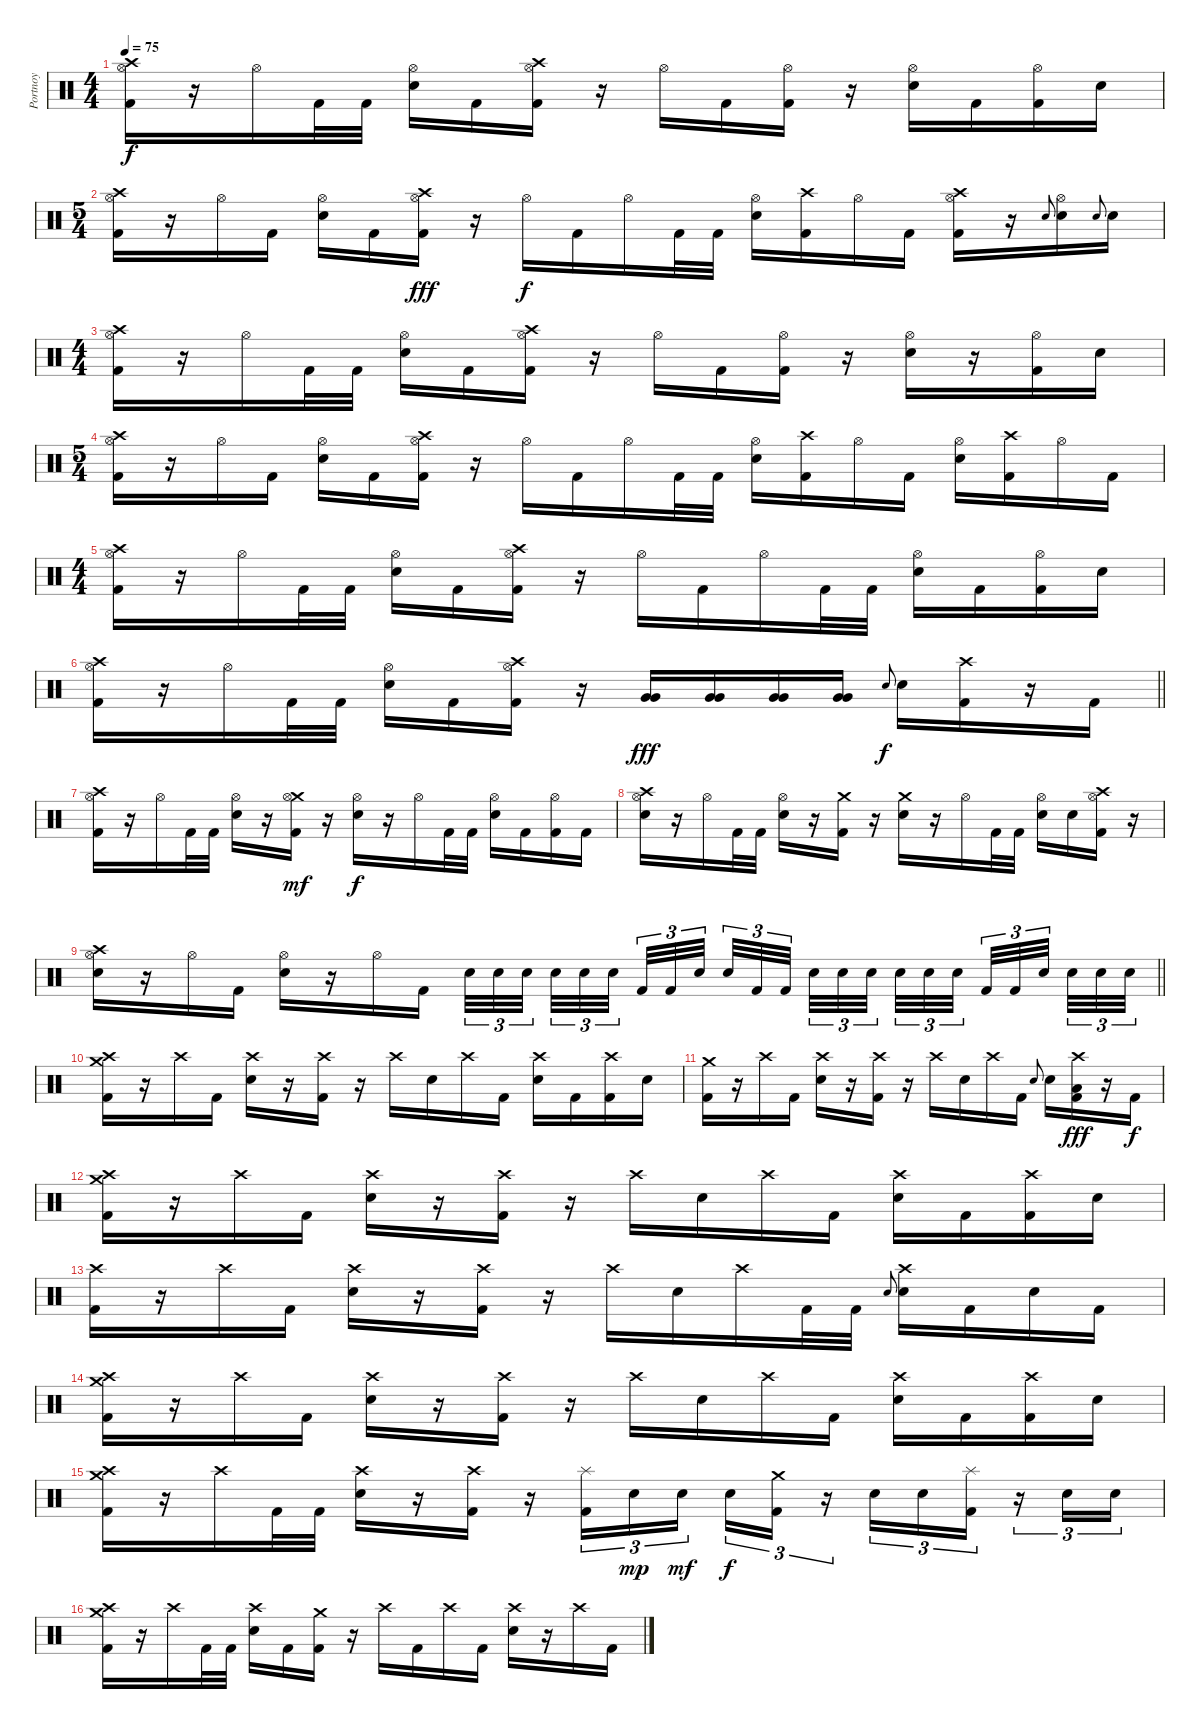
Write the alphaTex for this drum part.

\track ("Portnoy" "Portnoy") {instrument percussion}
\staff {score}
\articulation defaults
\ts (4 4)
\tempo 75
\clef neutral
\ks c
("Crash high (hit)" "Hi-Hat (open)" "Kick (hit) 2").16{dy f} r.16 "Hi-Hat (open)".16 "Kick (hit) 2".32 "Kick (hit) 2".32 ("Hi-Hat (open)" "Electric Snare (hit)").16 "Kick (hit) 2".16 ("Crash high (hit)" "Hi-Hat (open)" "Kick (hit) 2").16 r.16 "Hi-Hat (open)".16 "Kick (hit) 2".16 ("Hi-Hat (open)" "Kick (hit) 2").16 r.16 ("Hi-Hat (open)" "Electric Snare (hit)").16 "Kick (hit) 2".16 ("Hi-Hat (open)" "Kick (hit) 2").16 "Electric Snare (hit)".16 |
\ts (5 4)
("Crash high (hit)" "Hi-Hat (open)" "Kick (hit) 2").16 r.16 "Hi-Hat (open)".16 "Kick (hit) 2".16 ("Hi-Hat (open)" "Electric Snare (hit)").16 "Kick (hit) 2".16 ("Crash high (hit)" "Hi-Hat (open)" "Kick (hit) 2").16{dy fff} r.16 "Hi-Hat (open)".16{dy f} "Kick (hit) 2".16 "Hi-Hat (open)".16 "Kick (hit) 2".32 "Kick (hit) 2".32 ("Hi-Hat (open)" "Electric Snare (hit)").16 ("Crash high (hit)" "Kick (hit) 2").16 "Hi-Hat (open)".16 "Kick (hit) 2".16 ("Crash high (hit)" "Hi-Hat (open)" "Kick (hit) 2").16 r.16 "Electric Snare (hit)".8{gr onbeat} ("Hi-Hat (open)" "Electric Snare (hit)").16 "Electric Snare (hit)".8{gr onbeat} "Electric Snare (hit)".16 |
\ts (4 4)
("Crash high (hit)" "Hi-Hat (open)" "Kick (hit) 2").16 r.16 "Hi-Hat (open)".16 "Kick (hit) 2".32 "Kick (hit) 2".32 ("Hi-Hat (open)" "Electric Snare (hit)").16 "Kick (hit) 2".16 ("Crash high (hit)" "Hi-Hat (open)" "Kick (hit) 2").16 r.16 "Hi-Hat (open)".16 "Kick (hit) 2".16 ("Hi-Hat (open)" "Kick (hit) 2").16 r.16 ("Hi-Hat (open)" "Electric Snare (hit)").16 r.16 ("Hi-Hat (open)" "Kick (hit) 2").16 "Electric Snare (hit)".16 |
\ts (5 4)
("Crash high (hit)" "Hi-Hat (open)" "Kick (hit) 2").16 r.16 "Hi-Hat (open)".16 "Kick (hit) 2".16 ("Hi-Hat (open)" "Electric Snare (hit)").16 "Kick (hit) 2".16 ("Crash high (hit)" "Hi-Hat (open)" "Kick (hit) 2").16 r.16 "Hi-Hat (open)".16 "Kick (hit) 2".16 "Hi-Hat (open)".16 "Kick (hit) 2".32 "Kick (hit) 2".32 ("Hi-Hat (open)" "Electric Snare (hit)").16 ("Crash high (hit)" "Kick (hit) 2").16 "Hi-Hat (open)".16 "Kick (hit) 2".16 ("Hi-Hat (open)" "Electric Snare (hit)").16 ("Crash high (hit)" "Kick (hit) 2").16 "Hi-Hat (open)".16 "Kick (hit) 2".16 |
\ts (4 4)
("Crash high (hit)" "Hi-Hat (open)" "Kick (hit) 2").16 r.16 "Hi-Hat (open)".16 "Kick (hit) 2".32 "Kick (hit) 2".32 ("Hi-Hat (open)" "Electric Snare (hit)").16 "Kick (hit) 2".16 ("Crash high (hit)" "Hi-Hat (open)" "Kick (hit) 2").16 r.16 "Hi-Hat (open)".16 "Kick (hit) 2".16 "Hi-Hat (open)".16 "Kick (hit) 2".32 "Kick (hit) 2".32 ("Hi-Hat (open)" "Electric Snare (hit)").16 "Kick (hit) 2".16 ("Hi-Hat (open)" "Kick (hit) 2").16 "Electric Snare (hit)".16 |
\barLineRight lightlight
("Crash high (hit)" "Hi-Hat (open)" "Kick (hit) 2").16 r.16 "Hi-Hat (open)".16 "Kick (hit) 2".32 "Kick (hit) 2".32 ("Hi-Hat (open)" "Electric Snare (hit)").16 "Kick (hit) 2".16 ("Crash high (hit)" "Hi-Hat (open)" "Kick (hit) 2").16 r.16 ("Very Low Tom (hit)" "Very Low Tom (hit)").16{dy fff} ("Very Low Tom (hit)" "Very Low Tom (hit)").16 ("Very Low Tom (hit)" "Very Low Tom (hit)").16 ("Very Low Tom (hit)" "Very Low Tom (hit)").16 "Electric Snare (hit)".8{gr onbeat dy f} "Electric Snare (hit)".16 ("Crash high (hit)" "Kick (hit) 2").16 r.16 "Kick (hit) 2".16 |
("Crash high (hit)" "Hi-Hat (open)" "Kick (hit) 2").16 r.16 "Hi-Hat (open)".16 "Kick (hit) 2".32 "Kick (hit) 2".32 ("Hi-Hat (open)" "Electric Snare (hit)").16 r.16 ("Crash medium (hit)" "Hi-Hat (open)" "Kick (hit) 2").16{dy mf} r.16 ("Hi-Hat (open)" "Electric Snare (hit)").16{dy f} r.16 "Hi-Hat (open)".16 "Kick (hit) 2".32 "Kick (hit) 2".32 ("Hi-Hat (open)" "Electric Snare (hit)").16 "Kick (hit) 2".16 ("Hi-Hat (open)" "Kick (hit) 2").16 "Kick (hit) 2".16 |
("Crash high (hit)" "Hi-Hat (open)" "Electric Snare (hit)").16 r.16 "Hi-Hat (open)".16 "Kick (hit) 2".32 "Kick (hit) 2".32 ("Hi-Hat (open)" "Electric Snare (hit)").16 r.16 ("Crash medium (hit)" "Kick (hit) 2").16 r.16 ("Crash medium (hit)" "Electric Snare (hit)").16 r.16 "Hi-Hat (open)".16 "Kick (hit) 2".32 "Kick (hit) 2".32 ("Hi-Hat (open)" "Electric Snare (hit)").16 "Electric Snare (hit)".16 ("Crash high (hit)" "Hi-Hat (open)" "Kick (hit) 2").16 r.16 |
\barLineRight lightlight
("Crash high (hit)" "Hi-Hat (open)" "Electric Snare (hit)").16 r.16 "Hi-Hat (open)".16 "Kick (hit) 2".16 ("Hi-Hat (open)" "Electric Snare (hit)").16 r.16 "Hi-Hat (open)".16 "Kick (hit) 2".16 "Electric Snare (hit)".32{tu (3 2)} "Electric Snare (hit)".32{tu (3 2)} "Electric Snare (hit)".32{tu (3 2) beam splitsecondary} "Electric Snare (hit)".32{tu (3 2)} "Electric Snare (hit)".32{tu (3 2)} "Electric Snare (hit)".32{tu (3 2) beam splitsecondary} "Kick (hit) 2".32{tu (3 2)} "Kick (hit) 2".32{tu (3 2)} "Electric Snare (hit)".32{tu (3 2) beam splitsecondary} "Electric Snare (hit)".32{tu (3 2)} "Kick (hit) 2".32{tu (3 2)} "Kick (hit) 2".32{tu (3 2)} "Electric Snare (hit)".32{tu (3 2)} "Electric Snare (hit)".32{tu (3 2)} "Electric Snare (hit)".32{tu (3 2) beam splitsecondary} "Electric Snare (hit)".32{tu (3 2)} "Electric Snare (hit)".32{tu (3 2)} "Electric Snare (hit)".32{tu (3 2) beam splitsecondary} "Kick (hit) 2".32{tu (3 2)} "Kick (hit) 2".32{tu (3 2)} "Electric Snare (hit)".32{tu (3 2) beam splitsecondary} "Electric Snare (hit)".32{tu (3 2)} "Electric Snare (hit)".32{tu (3 2)} "Electric Snare (hit)".32{tu (3 2)} |
("Crash medium (hit)" "Crash high (hit)" "Kick (hit) 2").16 r.16 "Crash high (hit)".16 "Kick (hit) 2".16 ("Crash high (hit)" "Electric Snare (hit)").16 r.16 ("Crash high (hit)" "Kick (hit) 2").16 r.16 "Crash high (hit)".16 "Electric Snare (hit)".16 "Crash high (hit)".16 "Kick (hit) 2".16 ("Crash high (hit)" "Electric Snare (hit)").16 "Kick (hit) 2".16 ("Crash high (hit)" "Kick (hit) 2").16 "Electric Snare (hit)".16 |
("Crash medium (hit)" "Kick (hit) 2").16 r.16 "Crash high (hit)".16 "Kick (hit) 2".16 ("Crash high (hit)" "Electric Snare (hit)").16 r.16 ("Crash high (hit)" "Kick (hit) 2").16 r.16 "Crash high (hit)".16 "Electric Snare (hit)".16 "Crash high (hit)".16 "Kick (hit) 2".16 "Electric Snare (hit)".8{gr onbeat} "Electric Snare (hit)".16 ("Crash high (hit)" "Low Floor Tom (hit)" "Kick (hit) 2").16{dy fff} r.16 "Kick (hit) 2".16{dy f} |
("Crash medium (hit)" "Crash high (hit)" "Kick (hit) 2").16 r.16 "Crash high (hit)".16 "Kick (hit) 2".16 ("Crash high (hit)" "Electric Snare (hit)").16 r.16 ("Crash high (hit)" "Kick (hit) 2").16 r.16 "Crash high (hit)".16 "Electric Snare (hit)".16 "Crash high (hit)".16 "Kick (hit) 2".16 ("Crash high (hit)" "Electric Snare (hit)").16 "Kick (hit) 2".16 ("Crash high (hit)" "Kick (hit) 2").16 "Electric Snare (hit)".16 |
("Crash high (hit)" "Kick (hit) 2").16 r.16 "Crash high (hit)".16 "Kick (hit) 2".16 ("Crash high (hit)" "Electric Snare (hit)").16 r.16 ("Crash high (hit)" "Kick (hit) 2").16 r.16 "Crash high (hit)".16 "Electric Snare (hit)".16 "Crash high (hit)".16 "Kick (hit) 2".32 "Kick (hit) 2".32 "Electric Snare (hit)".8{gr onbeat} ("Crash high (hit)" "Electric Snare (hit)").16 "Kick (hit) 2".16 "Electric Snare (hit)".16 "Kick (hit) 2".16 |
("Crash medium (hit)" "Crash high (hit)" "Kick (hit) 2").16 r.16 "Crash high (hit)".16 "Kick (hit) 2".16 ("Crash high (hit)" "Electric Snare (hit)").16 r.16 ("Crash high (hit)" "Kick (hit) 2").16 r.16 "Crash high (hit)".16 "Electric Snare (hit)".16 "Crash high (hit)".16 "Kick (hit) 2".16 ("Crash high (hit)" "Electric Snare (hit)").16 "Kick (hit) 2".16 ("Crash high (hit)" "Kick (hit) 2").16 "Electric Snare (hit)".16 |
("Crash medium (hit)" "Crash high (hit)" "Kick (hit) 2").16 r.16 "Crash high (hit)".16 "Kick (hit) 2".32 "Kick (hit) 2".32 ("Crash high (hit)" "Electric Snare (hit)").16 r.16 ("Crash high (hit)" "Kick (hit) 2").16 r.16 ("Splash (hit)" "Kick (hit) 2").16{tu (3 2)} "Electric Snare (hit)".16{tu (3 2) dy mp} "Electric Snare (hit)".16{tu (3 2) dy mf beam splitsecondary} "Electric Snare (hit)".16{tu (3 2) dy f} ("Crash medium (hit)" "Kick (hit) 2").16{tu (3 2)} r.16{tu (3 2)} "Electric Snare (hit)".16{tu (3 2)} "Electric Snare (hit)".16{tu (3 2)} ("Splash (hit)" "Kick (hit) 2").16{tu (3 2)} r.16{tu (3 2)} "Electric Snare (hit)".16{tu (3 2)} "Electric Snare (hit)".16{tu (3 2)} |
("Crash medium (hit)" "Crash high (hit)" "Kick (hit) 2").16 r.16 "Crash high (hit)".16 "Kick (hit) 2".32 "Kick (hit) 2".32 ("Crash high (hit)" "Electric Snare (hit)").16 "Kick (hit) 2".16 ("Crash medium (hit)" "Kick (hit) 2").16 r.16 "Crash high (hit)".16 "Kick (hit) 2".16 "Crash high (hit)".16 "Kick (hit) 2".16 ("Crash high (hit)" "Electric Snare (hit)").16 r.16 "Crash high (hit)".16 "Kick (hit) 2".16
